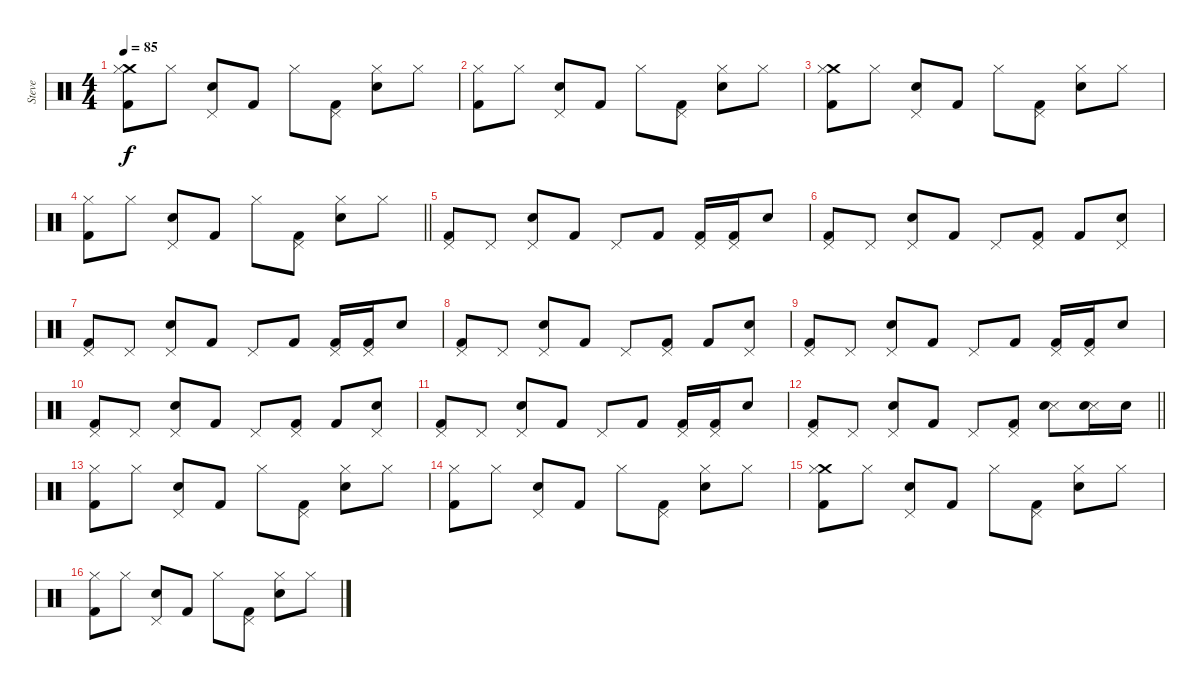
\track ("Steve" "Steve") {instrument percussion}
\staff {score}
\articulation defaults
\ts (4 4)
\tempo 85
\clef neutral
\ks c
("Kick (hit) 2" "Crash medium (hit)" "Hi-Hat (closed)").8{dy f} "Hi-Hat (closed)".8 ("Electric Snare (hit)" "Pedal Hi-Hat (hit)").8 "Kick (hit) 2".8 "Hi-Hat (closed)".8 ("Kick (hit) 2" "Pedal Hi-Hat (hit)").8 ("Electric Snare (hit)" "Hi-Hat (closed)").8 "Hi-Hat (closed)".8 |
("Kick (hit) 2" "Hi-Hat (closed)").8 "Hi-Hat (closed)".8 ("Electric Snare (hit)" "Pedal Hi-Hat (hit)").8 "Kick (hit) 2".8 "Hi-Hat (closed)".8 ("Kick (hit) 2" "Pedal Hi-Hat (hit)").8 ("Electric Snare (hit)" "Hi-Hat (closed)").8 "Hi-Hat (closed)".8 |
("Kick (hit) 2" "Crash medium (hit)" "Hi-Hat (closed)").8 "Hi-Hat (closed)".8 ("Electric Snare (hit)" "Pedal Hi-Hat (hit)").8 "Kick (hit) 2".8 "Hi-Hat (closed)".8 ("Kick (hit) 2" "Pedal Hi-Hat (hit)").8 ("Electric Snare (hit)" "Hi-Hat (closed)").8 "Hi-Hat (closed)".8 |
\barLineRight lightlight
("Kick (hit) 2" "Hi-Hat (closed)").8 "Hi-Hat (closed)".8 ("Electric Snare (hit)" "Pedal Hi-Hat (hit)").8 "Kick (hit) 2".8 "Hi-Hat (closed)".8 ("Kick (hit) 2" "Pedal Hi-Hat (hit)").8 ("Electric Snare (hit)" "Hi-Hat (closed)").8 "Hi-Hat (closed)".8 |
("Kick (hit) 2" "Pedal Hi-Hat (hit)").8 "Pedal Hi-Hat (hit)".8 ("Electric Snare (hit)" "Pedal Hi-Hat (hit)").8 "Kick (hit) 2".8 "Pedal Hi-Hat (hit)".8 "Kick (hit) 2".8 ("Kick (hit) 2" "Pedal Hi-Hat (hit)").16 ("Kick (hit) 2" "Pedal Hi-Hat (hit)").16 "Electric Snare (hit)".8 |
("Kick (hit) 2" "Pedal Hi-Hat (hit)").8 "Pedal Hi-Hat (hit)".8 ("Electric Snare (hit)" "Pedal Hi-Hat (hit)").8 "Kick (hit) 2".8 "Pedal Hi-Hat (hit)".8 ("Kick (hit) 2" "Pedal Hi-Hat (hit)").8 "Kick (hit) 2".8 ("Electric Snare (hit)" "Pedal Hi-Hat (hit)").8 |
("Kick (hit) 2" "Pedal Hi-Hat (hit)").8 "Pedal Hi-Hat (hit)".8 ("Electric Snare (hit)" "Pedal Hi-Hat (hit)").8 "Kick (hit) 2".8 "Pedal Hi-Hat (hit)".8 "Kick (hit) 2".8 ("Kick (hit) 2" "Pedal Hi-Hat (hit)").16 ("Kick (hit) 2" "Pedal Hi-Hat (hit)").16 "Electric Snare (hit)".8 |
("Kick (hit) 2" "Pedal Hi-Hat (hit)").8 "Pedal Hi-Hat (hit)".8 ("Electric Snare (hit)" "Pedal Hi-Hat (hit)").8 "Kick (hit) 2".8 "Pedal Hi-Hat (hit)".8 ("Kick (hit) 2" "Pedal Hi-Hat (hit)").8 "Kick (hit) 2".8 ("Electric Snare (hit)" "Pedal Hi-Hat (hit)").8 |
("Kick (hit) 2" "Pedal Hi-Hat (hit)").8 "Pedal Hi-Hat (hit)".8 ("Electric Snare (hit)" "Pedal Hi-Hat (hit)").8 "Kick (hit) 2".8 "Pedal Hi-Hat (hit)".8 "Kick (hit) 2".8 ("Kick (hit) 2" "Pedal Hi-Hat (hit)").16 ("Kick (hit) 2" "Pedal Hi-Hat (hit)").16 "Electric Snare (hit)".8 |
("Kick (hit) 2" "Pedal Hi-Hat (hit)").8 "Pedal Hi-Hat (hit)".8 ("Electric Snare (hit)" "Pedal Hi-Hat (hit)").8 "Kick (hit) 2".8 "Pedal Hi-Hat (hit)".8 ("Kick (hit) 2" "Pedal Hi-Hat (hit)").8 "Kick (hit) 2".8 ("Electric Snare (hit)" "Pedal Hi-Hat (hit)").8 |
("Kick (hit) 2" "Pedal Hi-Hat (hit)").8 "Pedal Hi-Hat (hit)".8 ("Electric Snare (hit)" "Pedal Hi-Hat (hit)").8 "Kick (hit) 2".8 "Pedal Hi-Hat (hit)".8 "Kick (hit) 2".8 ("Kick (hit) 2" "Pedal Hi-Hat (hit)").16 ("Kick (hit) 2" "Pedal Hi-Hat (hit)").16 "Electric Snare (hit)".8 |
\barLineRight lightlight
("Kick (hit) 2" "Pedal Hi-Hat (hit)").8 "Pedal Hi-Hat (hit)".8 ("Electric Snare (hit)" "Pedal Hi-Hat (hit)").8 "Kick (hit) 2".8 "Pedal Hi-Hat (hit)".8 ("Kick (hit) 2" "Pedal Hi-Hat (hit)").8 ("Snare (side stick) 3" "Electric Snare (hit)").8 ("Snare (side stick) 3" "Electric Snare (hit)").16 "Electric Snare (hit)".16 |
("Kick (hit) 2" "Hi-Hat (closed)").8 "Hi-Hat (closed)".8 ("Electric Snare (hit)" "Pedal Hi-Hat (hit)").8 "Kick (hit) 2".8 "Hi-Hat (closed)".8 ("Kick (hit) 2" "Pedal Hi-Hat (hit)").8 ("Electric Snare (hit)" "Hi-Hat (closed)").8 "Hi-Hat (closed)".8 |
("Kick (hit) 2" "Hi-Hat (closed)").8 "Hi-Hat (closed)".8 ("Electric Snare (hit)" "Pedal Hi-Hat (hit)").8 "Kick (hit) 2".8 "Hi-Hat (closed)".8 ("Kick (hit) 2" "Pedal Hi-Hat (hit)").8 ("Electric Snare (hit)" "Hi-Hat (closed)").8 "Hi-Hat (closed)".8 |
("Kick (hit) 2" "Crash medium (hit)" "Hi-Hat (closed)").8 "Hi-Hat (closed)".8 ("Electric Snare (hit)" "Pedal Hi-Hat (hit)").8 "Kick (hit) 2".8 "Hi-Hat (closed)".8 ("Kick (hit) 2" "Pedal Hi-Hat (hit)").8 ("Electric Snare (hit)" "Hi-Hat (closed)").8 "Hi-Hat (closed)".8 |
("Kick (hit) 2" "Hi-Hat (closed)").8 "Hi-Hat (closed)".8 ("Electric Snare (hit)" "Pedal Hi-Hat (hit)").8 "Kick (hit) 2".8 "Hi-Hat (closed)".8 ("Kick (hit) 2" "Pedal Hi-Hat (hit)").8 ("Electric Snare (hit)" "Hi-Hat (closed)").8 "Hi-Hat (closed)".8
